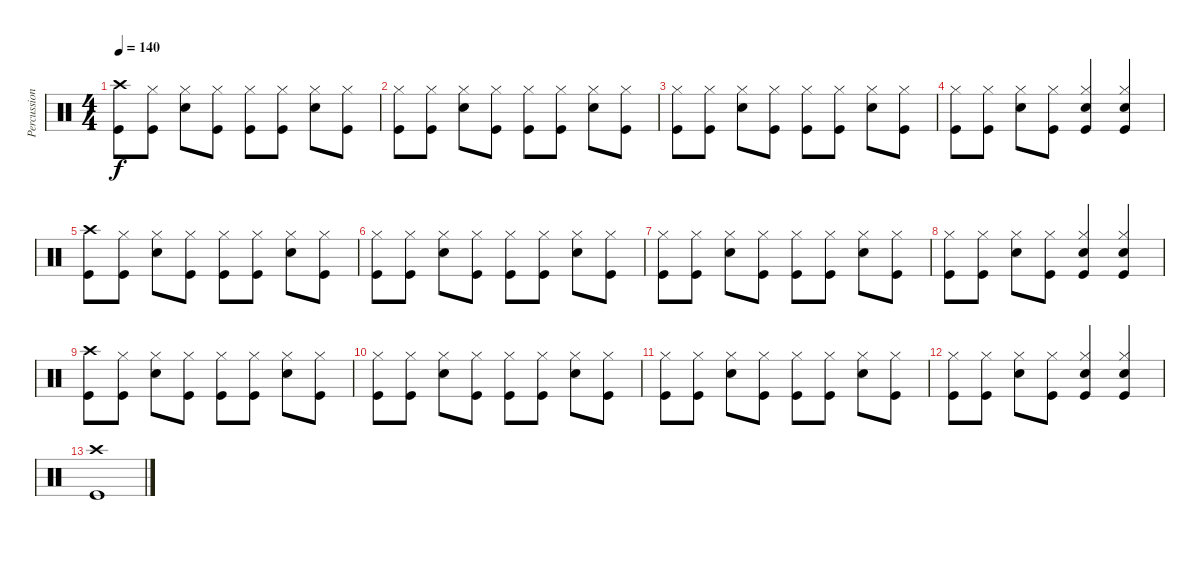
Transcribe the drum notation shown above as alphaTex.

\track ("Percussioni" "Percussion") {instrument percussion}
\staff {score}
\articulation defaults
\ts (4 4)
\tempo 140
\clef neutral
\ks c
("Crash high (hit)" "Kick (hit)").8{dy f} ("Hi-Hat (closed)" "Kick (hit)").8 ("Hi-Hat (closed)" "Snare (hit) 2").8 ("Hi-Hat (closed)" "Kick (hit)").8 ("Hi-Hat (closed)" "Kick (hit)").8 ("Hi-Hat (closed)" "Kick (hit)").8 ("Hi-Hat (closed)" "Snare (hit) 2").8 ("Hi-Hat (closed)" "Kick (hit)").8 |
("Hi-Hat (closed)" "Kick (hit)").8 ("Hi-Hat (closed)" "Kick (hit)").8 ("Hi-Hat (closed)" "Snare (hit) 2").8 ("Hi-Hat (closed)" "Kick (hit)").8 ("Hi-Hat (closed)" "Kick (hit)").8 ("Hi-Hat (closed)" "Kick (hit)").8 ("Hi-Hat (closed)" "Snare (hit) 2").8 ("Hi-Hat (closed)" "Kick (hit)").8 |
("Hi-Hat (closed)" "Kick (hit)").8 ("Hi-Hat (closed)" "Kick (hit)").8 ("Hi-Hat (closed)" "Snare (hit) 2").8 ("Hi-Hat (closed)" "Kick (hit)").8 ("Hi-Hat (closed)" "Kick (hit)").8 ("Hi-Hat (closed)" "Kick (hit)").8 ("Hi-Hat (closed)" "Snare (hit) 2").8 ("Hi-Hat (closed)" "Kick (hit)").8 |
("Hi-Hat (closed)" "Kick (hit)").8 ("Hi-Hat (closed)" "Kick (hit)").8 ("Hi-Hat (closed)" "Snare (hit) 2").8 ("Hi-Hat (closed)" "Kick (hit)").8 ("Hi-Hat (closed)" "Snare (hit) 2" "Kick (hit)").4 ("Hi-Hat (closed)" "Snare (hit) 2" "Kick (hit)").4 |
("Crash high (hit)" "Kick (hit)").8 ("Hi-Hat (closed)" "Kick (hit)").8 ("Hi-Hat (closed)" "Snare (hit) 2").8 ("Hi-Hat (closed)" "Kick (hit)").8 ("Hi-Hat (closed)" "Kick (hit)").8 ("Hi-Hat (closed)" "Kick (hit)").8 ("Hi-Hat (closed)" "Snare (hit) 2").8 ("Hi-Hat (closed)" "Kick (hit)").8 |
("Hi-Hat (closed)" "Kick (hit)").8 ("Hi-Hat (closed)" "Kick (hit)").8 ("Hi-Hat (closed)" "Snare (hit) 2").8 ("Hi-Hat (closed)" "Kick (hit)").8 ("Hi-Hat (closed)" "Kick (hit)").8 ("Hi-Hat (closed)" "Kick (hit)").8 ("Hi-Hat (closed)" "Snare (hit) 2").8 ("Hi-Hat (closed)" "Kick (hit)").8 |
("Hi-Hat (closed)" "Kick (hit)").8 ("Hi-Hat (closed)" "Kick (hit)").8 ("Hi-Hat (closed)" "Snare (hit) 2").8 ("Hi-Hat (closed)" "Kick (hit)").8 ("Hi-Hat (closed)" "Kick (hit)").8 ("Hi-Hat (closed)" "Kick (hit)").8 ("Hi-Hat (closed)" "Snare (hit) 2").8 ("Hi-Hat (closed)" "Kick (hit)").8 |
("Hi-Hat (closed)" "Kick (hit)").8 ("Hi-Hat (closed)" "Kick (hit)").8 ("Hi-Hat (closed)" "Snare (hit) 2").8 ("Hi-Hat (closed)" "Kick (hit)").8 ("Hi-Hat (closed)" "Snare (hit) 2" "Kick (hit)").4 ("Hi-Hat (closed)" "Snare (hit) 2" "Kick (hit)").4 |
("Crash high (hit)" "Kick (hit)").8 ("Hi-Hat (closed)" "Kick (hit)").8 ("Hi-Hat (closed)" "Snare (hit) 2").8 ("Hi-Hat (closed)" "Kick (hit)").8 ("Hi-Hat (closed)" "Kick (hit)").8 ("Hi-Hat (closed)" "Kick (hit)").8 ("Hi-Hat (closed)" "Snare (hit) 2").8 ("Hi-Hat (closed)" "Kick (hit)").8 |
("Hi-Hat (closed)" "Kick (hit)").8 ("Hi-Hat (closed)" "Kick (hit)").8 ("Hi-Hat (closed)" "Snare (hit) 2").8 ("Hi-Hat (closed)" "Kick (hit)").8 ("Hi-Hat (closed)" "Kick (hit)").8 ("Hi-Hat (closed)" "Kick (hit)").8 ("Hi-Hat (closed)" "Snare (hit) 2").8 ("Hi-Hat (closed)" "Kick (hit)").8 |
("Hi-Hat (closed)" "Kick (hit)").8 ("Hi-Hat (closed)" "Kick (hit)").8 ("Hi-Hat (closed)" "Snare (hit) 2").8 ("Hi-Hat (closed)" "Kick (hit)").8 ("Hi-Hat (closed)" "Kick (hit)").8 ("Hi-Hat (closed)" "Kick (hit)").8 ("Hi-Hat (closed)" "Snare (hit) 2").8 ("Hi-Hat (closed)" "Kick (hit)").8 |
("Hi-Hat (closed)" "Kick (hit)").8 ("Hi-Hat (closed)" "Kick (hit)").8 ("Hi-Hat (closed)" "Snare (hit) 2").8 ("Hi-Hat (closed)" "Kick (hit)").8 ("Hi-Hat (closed)" "Snare (hit) 2" "Kick (hit)").4 ("Hi-Hat (closed)" "Snare (hit) 2" "Kick (hit)").4 |
("Crash high (hit)" "Kick (hit)").1
